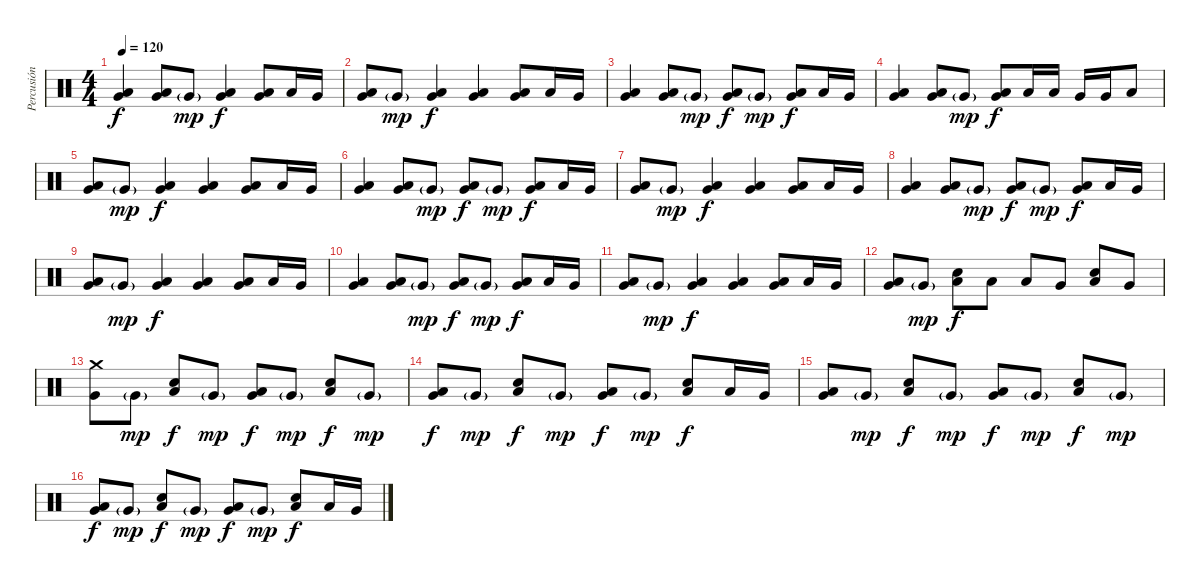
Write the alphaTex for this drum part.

\track ("Percusión" "Percusión") {instrument percussion}
\staff {score}
\articulation defaults
\ts (4 4)
\tempo 120
\clef neutral
\ks c
("Low Tom (hit)" "Very Low Tom (hit)").4{dy f} ("Low Tom (hit)" "Very Low Tom (hit)").8 "Very Low Tom (hit)"{g}.8{dy mp} ("Low Tom (hit)" "Very Low Tom (hit)").4{dy f} ("Low Tom (hit)" "Very Low Tom (hit)").8 "Low Tom (hit)".16 "Very Low Tom (hit)".16 |
("Low Tom (hit)" "Very Low Tom (hit)").8 "Very Low Tom (hit)"{g}.8{dy mp} ("Low Tom (hit)" "Very Low Tom (hit)").4{dy f} ("Low Tom (hit)" "Very Low Tom (hit)").4 ("Low Tom (hit)" "Very Low Tom (hit)").8 "Low Tom (hit)".16 "Very Low Tom (hit)".16 |
("Low Tom (hit)" "Very Low Tom (hit)").4 ("Low Tom (hit)" "Very Low Tom (hit)").8 "Very Low Tom (hit)"{g}.8{dy mp} ("Low Tom (hit)" "Very Low Tom (hit)").8{dy f} "Very Low Tom (hit)"{g}.8{dy mp} ("Low Tom (hit)" "Very Low Tom (hit)").8{dy f} "Low Tom (hit)".16 "Very Low Tom (hit)".16 |
("Low Tom (hit)" "Very Low Tom (hit)").4 ("Low Tom (hit)" "Very Low Tom (hit)").8 "Very Low Tom (hit)"{g}.8{dy mp} ("Low Tom (hit)" "Very Low Tom (hit)").8{dy f} "Low Tom (hit)".16 "Low Tom (hit)".16 "Very Low Tom (hit)".16 "Very Low Tom (hit)".16 "Low Floor Tom (hit)".8 |
("Low Tom (hit)" "Very Low Tom (hit)").8 "Very Low Tom (hit)"{g}.8{dy mp} ("Low Tom (hit)" "Very Low Tom (hit)").4{dy f} ("Low Tom (hit)" "Very Low Tom (hit)").4 ("Low Tom (hit)" "Very Low Tom (hit)").8 "Low Tom (hit)".16 "Very Low Tom (hit)".16 |
("Low Tom (hit)" "Very Low Tom (hit)").4 ("Low Tom (hit)" "Very Low Tom (hit)").8 "Very Low Tom (hit)"{g}.8{dy mp} ("Low Tom (hit)" "Very Low Tom (hit)").8{dy f} "Very Low Tom (hit)"{g}.8{dy mp} ("Low Tom (hit)" "Very Low Tom (hit)").8{dy f} "Low Tom (hit)".16 "Very Low Tom (hit)".16 |
("Low Tom (hit)" "Very Low Tom (hit)").8 "Very Low Tom (hit)"{g}.8{dy mp} ("Low Tom (hit)" "Very Low Tom (hit)").4{dy f} ("Low Tom (hit)" "Very Low Tom (hit)").4 ("Low Tom (hit)" "Very Low Tom (hit)").8 "Low Tom (hit)".16 "Very Low Tom (hit)".16 |
("Low Tom (hit)" "Very Low Tom (hit)").4 ("Low Tom (hit)" "Very Low Tom (hit)").8 "Very Low Tom (hit)"{g}.8{dy mp} ("Low Tom (hit)" "Very Low Tom (hit)").8{dy f} "Very Low Tom (hit)"{g}.8{dy mp} ("Low Tom (hit)" "Very Low Tom (hit)").8{dy f} "Low Tom (hit)".16 "Very Low Tom (hit)".16 |
("Low Tom (hit)" "Very Low Tom (hit)").8 "Very Low Tom (hit)"{g}.8{dy mp} ("Low Tom (hit)" "Very Low Tom (hit)").4{dy f} ("Low Tom (hit)" "Very Low Tom (hit)").4 ("Low Tom (hit)" "Very Low Tom (hit)").8 "Low Tom (hit)".16 "Very Low Tom (hit)".16 |
("Low Tom (hit)" "Very Low Tom (hit)").4 ("Low Tom (hit)" "Very Low Tom (hit)").8 "Very Low Tom (hit)"{g}.8{dy mp} ("Low Tom (hit)" "Very Low Tom (hit)").8{dy f} "Very Low Tom (hit)"{g}.8{dy mp} ("Low Tom (hit)" "Very Low Tom (hit)").8{dy f} "Low Tom (hit)".16 "Very Low Tom (hit)".16 |
("Low Tom (hit)" "Very Low Tom (hit)").8 "Very Low Tom (hit)"{g}.8{dy mp} ("Low Tom (hit)" "Very Low Tom (hit)").4{dy f} ("Low Tom (hit)" "Very Low Tom (hit)").4 ("Low Tom (hit)" "Very Low Tom (hit)").8 "Low Tom (hit)".16 "Very Low Tom (hit)".16 |
("Low Tom (hit)" "Very Low Tom (hit)").8 "Very Low Tom (hit)"{g}.8{dy mp} ("Low Floor Tom (hit)" "Electric Snare (hit)").8{dy f} "Low Tom (hit)".8 "Low Tom (hit)".8 "Very Low Tom (hit)".8 ("Low Floor Tom (hit)" "Electric Snare (hit)").8 "Very Low Tom (hit)".8 |
("Crash medium (hit)" "Very Low Tom (hit)").8 "Very Low Tom (hit)"{g}.8{dy mp} ("Low Floor Tom (hit)" "Electric Snare (hit)").8{dy f} "Very Low Tom (hit)"{g}.8{dy mp} ("Low Tom (hit)" "Very Low Tom (hit)").8{dy f} "Very Low Tom (hit)"{g}.8{dy mp} ("Low Floor Tom (hit)" "Electric Snare (hit)").8{dy f} "Very Low Tom (hit)"{g}.8{dy mp} |
("Low Tom (hit)" "Very Low Tom (hit)").8{dy f} "Very Low Tom (hit)"{g}.8{dy mp} ("Low Floor Tom (hit)" "Electric Snare (hit)").8{dy f} "Very Low Tom (hit)"{g}.8{dy mp} ("Low Tom (hit)" "Very Low Tom (hit)").8{dy f} "Very Low Tom (hit)"{g}.8{dy mp} ("Electric Snare (hit)" "Low Floor Tom (hit)").8{dy f} "Low Tom (hit)".16 "Very Low Tom (hit)".16 |
("Low Tom (hit)" "Very Low Tom (hit)").8 "Very Low Tom (hit)"{g}.8{dy mp} ("Low Floor Tom (hit)" "Electric Snare (hit)").8{dy f} "Very Low Tom (hit)"{g}.8{dy mp} ("Low Tom (hit)" "Very Low Tom (hit)").8{dy f} "Very Low Tom (hit)"{g}.8{dy mp} ("Low Floor Tom (hit)" "Electric Snare (hit)").8{dy f} "Very Low Tom (hit)"{g}.8{dy mp} |
("Low Tom (hit)" "Very Low Tom (hit)").8{dy f} "Very Low Tom (hit)"{g}.8{dy mp} ("Low Floor Tom (hit)" "Electric Snare (hit)").8{dy f} "Very Low Tom (hit)"{g}.8{dy mp} ("Low Tom (hit)" "Very Low Tom (hit)").8{dy f} "Very Low Tom (hit)"{g}.8{dy mp} ("Electric Snare (hit)" "Low Floor Tom (hit)").8{dy f} "Low Tom (hit)".16 "Very Low Tom (hit)".16
